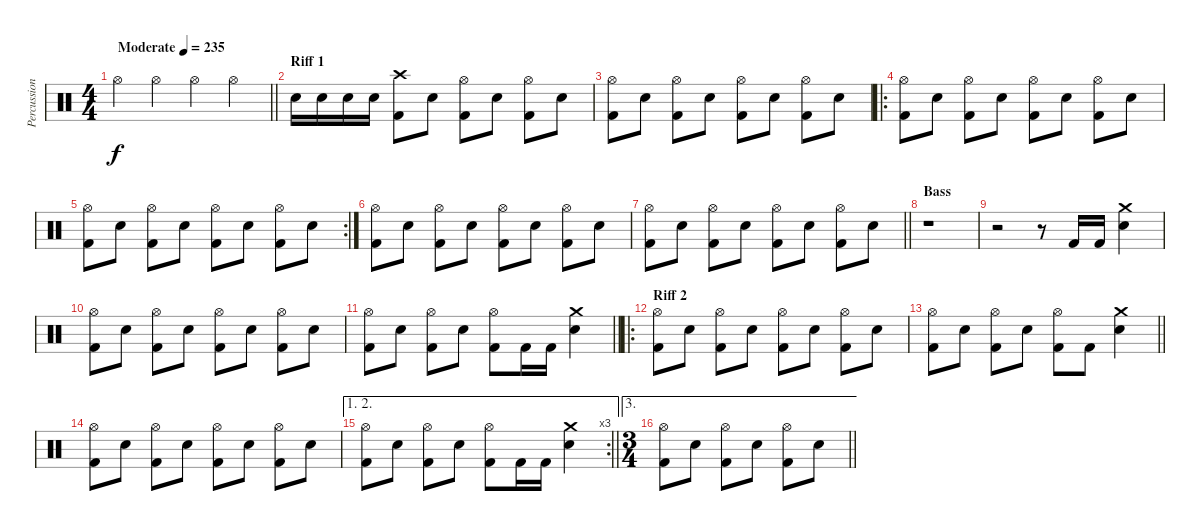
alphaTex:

\track ("Percussion" "Percussion") {instrument percussion}
\staff {score}
\articulation defaults
\ts (4 4)
\tempo (235 "Moderate")
\clef neutral
\barLineRight lightlight
\ks c "Hi-Hat (open)".4{dy f} "Hi-Hat (open)".4 "Hi-Hat (open)".4 "Hi-Hat (open)".4
|
\section ("" "Riff 1")
"Electric Snare (hit)".16 "Electric Snare (hit)".16 "Electric Snare (hit)".16 "Electric Snare (hit)".16 ("Crash high (hit)" "Kick (hit) 2").8 "Electric Snare (hit)".8 ("Hi-Hat (open)" "Kick (hit) 2").8 "Electric Snare (hit)".8 ("Hi-Hat (open)" "Kick (hit) 2").8 "Electric Snare (hit)".8 |
("Hi-Hat (open)" "Kick (hit) 2").8 "Electric Snare (hit)".8 ("Hi-Hat (open)" "Kick (hit) 2").8 "Electric Snare (hit)".8 ("Hi-Hat (open)" "Kick (hit) 2").8 "Electric Snare (hit)".8 ("Hi-Hat (open)" "Kick (hit) 2").8 "Electric Snare (hit)".8 |
\ro
("Hi-Hat (open)" "Kick (hit) 2").8 "Electric Snare (hit)".8 ("Hi-Hat (open)" "Kick (hit) 2").8 "Electric Snare (hit)".8 ("Hi-Hat (open)" "Kick (hit) 2").8 "Electric Snare (hit)".8 ("Hi-Hat (open)" "Kick (hit) 2").8 "Electric Snare (hit)".8 |
\rc 2
("Hi-Hat (open)" "Kick (hit) 2").8 "Electric Snare (hit)".8 ("Hi-Hat (open)" "Kick (hit) 2").8 "Electric Snare (hit)".8 ("Hi-Hat (open)" "Kick (hit) 2").8 "Electric Snare (hit)".8 ("Hi-Hat (open)" "Kick (hit) 2").8 "Electric Snare (hit)".8 |
("Hi-Hat (open)" "Kick (hit) 2").8 "Electric Snare (hit)".8 ("Hi-Hat (open)" "Kick (hit) 2").8 "Electric Snare (hit)".8 ("Hi-Hat (open)" "Kick (hit) 2").8 "Electric Snare (hit)".8 ("Hi-Hat (open)" "Kick (hit) 2").8 "Electric Snare (hit)".8 |
\barLineRight lightlight
("Hi-Hat (open)" "Kick (hit) 2").8 "Electric Snare (hit)".8 ("Hi-Hat (open)" "Kick (hit) 2").8 "Electric Snare (hit)".8 ("Hi-Hat (open)" "Kick (hit) 2").8 "Electric Snare (hit)".8 ("Hi-Hat (open)" "Kick (hit) 2").8 "Electric Snare (hit)".8 |
\section ("" "Bass")
r.1 |
r.2 r.8 "Kick (hit) 2".16 "Kick (hit) 2".16 ("Crash medium (hit)" "Electric Snare (hit)").4 |
("Hi-Hat (open)" "Kick (hit) 2").8 "Electric Snare (hit)".8 ("Hi-Hat (open)" "Kick (hit) 2").8 "Electric Snare (hit)".8 ("Hi-Hat (open)" "Kick (hit) 2").8 "Electric Snare (hit)".8 ("Hi-Hat (open)" "Kick (hit) 2").8 "Electric Snare (hit)".8 |
\barLineRight lightlight
("Hi-Hat (open)" "Kick (hit) 2").8 "Electric Snare (hit)".8 ("Hi-Hat (open)" "Kick (hit) 2").8 "Electric Snare (hit)".8 ("Hi-Hat (open)" "Kick (hit) 2").8 "Kick (hit) 2".16 "Kick (hit) 2".16 ("Crash medium (hit)" "Electric Snare (hit)").4 |
\ro
\section ("" "Riff 2")
("Hi-Hat (open)" "Kick (hit) 2").8 "Electric Snare (hit)".8 ("Hi-Hat (open)" "Kick (hit) 2").8 "Electric Snare (hit)".8 ("Hi-Hat (open)" "Kick (hit) 2").8 "Electric Snare (hit)".8 ("Hi-Hat (open)" "Kick (hit) 2").8 "Electric Snare (hit)".8 |
\barLineRight lightlight
("Hi-Hat (open)" "Kick (hit) 2").8 "Electric Snare (hit)".8 ("Hi-Hat (open)" "Kick (hit) 2").8 "Electric Snare (hit)".8 ("Hi-Hat (open)" "Kick (hit) 2").8 "Kick (hit) 2".8 ("Crash medium (hit)" "Electric Snare (hit)").4 |
("Hi-Hat (open)" "Kick (hit) 2").8 "Electric Snare (hit)".8 ("Hi-Hat (open)" "Kick (hit) 2").8 "Electric Snare (hit)".8 ("Hi-Hat (open)" "Kick (hit) 2").8 "Electric Snare (hit)".8 ("Hi-Hat (open)" "Kick (hit) 2").8 "Electric Snare (hit)".8 |
\ae (1 2)
\rc 3
\barLineRight lightlight
("Hi-Hat (open)" "Kick (hit) 2").8 "Electric Snare (hit)".8 ("Hi-Hat (open)" "Kick (hit) 2").8 "Electric Snare (hit)".8 ("Hi-Hat (open)" "Kick (hit) 2").8 "Kick (hit) 2".16 "Kick (hit) 2".16 ("Crash medium (hit)" "Electric Snare (hit)").4 |
\ae 3
\ts (3 4)
\barLineRight lightlight
("Hi-Hat (open)" "Kick (hit) 2").8 "Electric Snare (hit)".8 ("Hi-Hat (open)" "Kick (hit) 2").8 "Electric Snare (hit)".8 ("Hi-Hat (open)" "Kick (hit) 2").8 "Electric Snare (hit)".8
